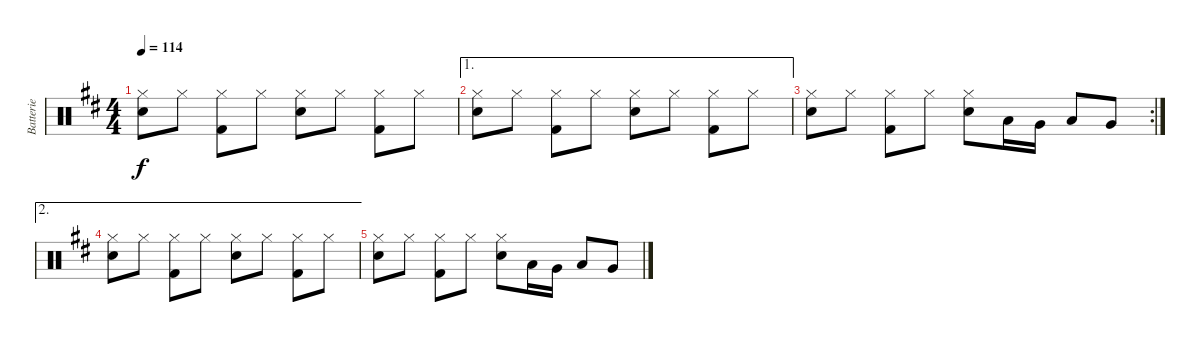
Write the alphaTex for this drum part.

\track ("Batterie" "Batterie") {instrument percussion}
\staff {score}
\articulation defaults
\ts (4 4)
\tempo 114
\clef neutral
\ks d
("Hi-Hat (closed)" "Snare (hit) 2").8{dy f} "Hi-Hat (closed)".8 ("Hi-Hat (closed)" "Kick (hit) 2").8 "Hi-Hat (closed)".8 ("Hi-Hat (closed)" "Snare (hit) 2").8 "Hi-Hat (closed)".8 ("Hi-Hat (closed)" "Kick (hit) 2").8 "Hi-Hat (closed)".8 |
\ae 1
("Hi-Hat (closed)" "Snare (hit) 2").8 "Hi-Hat (closed)".8 ("Hi-Hat (closed)" "Kick (hit) 2").8 "Hi-Hat (closed)".8 ("Hi-Hat (closed)" "Snare (hit) 2").8 "Hi-Hat (closed)".8 ("Hi-Hat (closed)" "Kick (hit) 2").8 "Hi-Hat (closed)".8 |
\rc 2
("Hi-Hat (closed)" "Snare (hit) 2").8 "Hi-Hat (closed)".8 ("Hi-Hat (closed)" "Kick (hit) 2").8 "Hi-Hat (closed)".8 ("Hi-Hat (closed)" "Snare (hit) 2").8 "Low Tom (hit)".16 "Very Low Tom (hit)".16 "Low Floor Tom (hit)".8 "Very Low Tom (hit)".8 |
\ae 2
("Hi-Hat (closed)" "Snare (hit) 2").8 "Hi-Hat (closed)".8 ("Hi-Hat (closed)" "Kick (hit) 2").8 "Hi-Hat (closed)".8 ("Hi-Hat (closed)" "Snare (hit) 2").8 "Hi-Hat (closed)".8 ("Hi-Hat (closed)" "Kick (hit) 2").8 "Hi-Hat (closed)".8 |
("Hi-Hat (closed)" "Snare (hit) 2").8 "Hi-Hat (closed)".8 ("Hi-Hat (closed)" "Kick (hit) 2").8 "Hi-Hat (closed)".8 ("Hi-Hat (closed)" "Snare (hit) 2").8 "Low Tom (hit)".16 "Very Low Tom (hit)".16 "Low Floor Tom (hit)".8 "Very Low Tom (hit)".8
